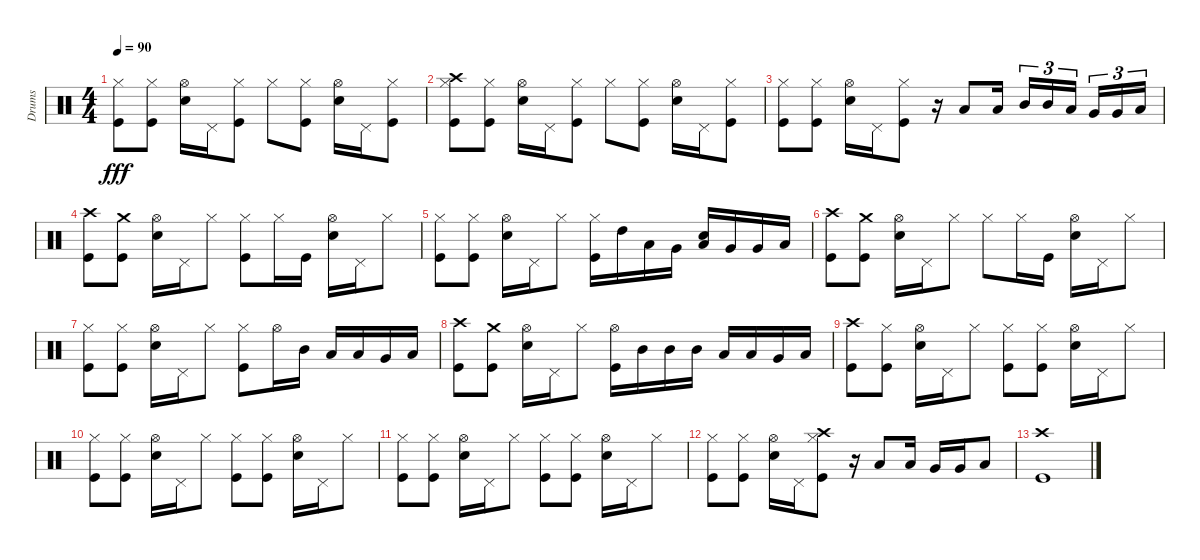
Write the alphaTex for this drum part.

\track ("Drums" "Drums") {instrument percussion}
\staff {score}
\articulation defaults
\ts (4 4)
\tempo 90
\clef neutral
\ks c
("Hi-Hat (closed)" "Kick (hit)").8{dy fff} ("Hi-Hat (closed)" "Kick (hit)").8 ("Hi-Hat (open)" "Snare (hit) 2").16 "Pedal Hi-Hat (hit)".16 ("Hi-Hat (closed)" "Kick (hit)").8 "Hi-Hat (closed)".8 ("Hi-Hat (closed)" "Kick (hit)").8 ("Hi-Hat (open)" "Snare (hit) 2").16 "Pedal Hi-Hat (hit)".16 ("Hi-Hat (closed)" "Kick (hit)").8 |
("Hi-Hat (closed)" "Crash high (hit)" "Kick (hit)").8 ("Hi-Hat (closed)" "Kick (hit)").8 ("Hi-Hat (open)" "Snare (hit) 2").16 "Pedal Hi-Hat (hit)".16 ("Hi-Hat (closed)" "Kick (hit)").8 "Hi-Hat (closed)".8 ("Hi-Hat (closed)" "Kick (hit)").8 ("Hi-Hat (open)" "Snare (hit) 2").16 "Pedal Hi-Hat (hit)".16 ("Hi-Hat (closed)" "Kick (hit)").8 |
("Hi-Hat (closed)" "Kick (hit)").8 ("Hi-Hat (closed)" "Kick (hit)").8 ("Hi-Hat (open)" "Snare (hit) 2").16 "Pedal Hi-Hat (hit)".16 ("Hi-Hat (closed)" "Kick (hit)").8 r.16 "Low Tom (hit)".8 "Low Tom (hit)".16 "Mid Tom (hit)".16{tu (3 2)} "Mid Tom (hit)".16{tu (3 2)} "Low Tom (hit)".16{tu (3 2)} "Very Low Tom (hit)".16{tu (3 2)} "Very Low Tom (hit)".16{tu (3 2)} "Low Floor Tom (hit)".16{tu (3 2)} |
("Crash high (hit)" "Kick (hit)").8 ("Crash medium (hit)" "Kick (hit)").8 ("Hi-Hat (open)" "Snare (hit) 2").16 "Pedal Hi-Hat (hit)".16 "Hi-Hat (closed)".8 ("Hi-Hat (closed)" "Kick (hit)").8 "Hi-Hat (closed)".16 "Kick (hit)".16 ("Hi-Hat (open)" "Snare (hit) 2").16 "Pedal Hi-Hat (hit)".16 "Hi-Hat (closed)".8 |
("Hi-Hat (closed)" "Kick (hit)").8 ("Hi-Hat (closed)" "Kick (hit)").8 ("Hi-Hat (open)" "Snare (hit) 2").16 "Pedal Hi-Hat (hit)".16 "Hi-Hat (closed)".8 ("Hi-Hat (closed)" "Kick (hit)").16 "High Tom (hit)".16 "Low Tom (hit)".16 "Very Low Tom (hit)".16 ("Low Tom (hit)" "Snare (hit) 2").16 "Very Low Tom (hit)".16 "Very Low Tom (hit)".16 "Low Floor Tom (hit)".16 |
("Crash high (hit)" "Kick (hit)").8 ("Crash medium (hit)" "Kick (hit)").8 ("Hi-Hat (open)" "Snare (hit) 2").16 "Pedal Hi-Hat (hit)".16 "Hi-Hat (closed)".8 "Hi-Hat (closed)".8 "Hi-Hat (closed)".16 "Kick (hit)".16 ("Hi-Hat (open)" "Snare (hit) 2").16 "Pedal Hi-Hat (hit)".16 "Hi-Hat (closed)".8 |
("Hi-Hat (closed)" "Kick (hit)").8 ("Hi-Hat (closed)" "Kick (hit)").8 ("Hi-Hat (open)" "Snare (hit) 2").16 "Pedal Hi-Hat (hit)".16 "Hi-Hat (closed)".8 ("Hi-Hat (closed)" "Kick (hit)").8 "Hi-Hat (open)".16 "Mid Tom (hit)".16 "Low Tom (hit)".16 "Low Tom (hit)".16 "Very Low Tom (hit)".16 "Low Floor Tom (hit)".16 |
("Crash high (hit)" "Kick (hit)").8 ("Crash medium (hit)" "Kick (hit)").8 ("Hi-Hat (open)" "Snare (hit) 2").16 "Pedal Hi-Hat (hit)".16 "Hi-Hat (closed)".8 ("Hi-Hat (open)" "Kick (hit)").16 "Mid Tom (hit)".16 "Mid Tom (hit)".16 "Mid Tom (hit)".16 "Low Tom (hit)".16 "Low Tom (hit)".16 "Very Low Tom (hit)".16 "Low Floor Tom (hit)".16 |
("Crash high (hit)" "Kick (hit)").8 ("Hi-Hat (closed)" "Kick (hit)").8 ("Hi-Hat (open)" "Snare (hit) 2").16 "Pedal Hi-Hat (hit)".16 "Hi-Hat (closed)".8 ("Hi-Hat (closed)" "Kick (hit)").8 ("Hi-Hat (closed)" "Kick (hit)").8 ("Hi-Hat (open)" "Snare (hit) 2").16 "Pedal Hi-Hat (hit)".16 "Hi-Hat (closed)".8 |
("Hi-Hat (closed)" "Kick (hit)").8 ("Hi-Hat (closed)" "Kick (hit)").8 ("Hi-Hat (open)" "Snare (hit) 2").16 "Pedal Hi-Hat (hit)".16 "Hi-Hat (closed)".8 ("Hi-Hat (closed)" "Kick (hit)").8 ("Hi-Hat (closed)" "Kick (hit)").8 ("Hi-Hat (open)" "Snare (hit) 2").16 "Pedal Hi-Hat (hit)".16 "Hi-Hat (closed)".8 |
("Hi-Hat (closed)" "Kick (hit)").8 ("Hi-Hat (closed)" "Kick (hit)").8 ("Hi-Hat (open)" "Snare (hit) 2").16 "Pedal Hi-Hat (hit)".16 "Hi-Hat (closed)".8 ("Hi-Hat (closed)" "Kick (hit)").8 ("Hi-Hat (closed)" "Kick (hit)").8 ("Hi-Hat (open)" "Snare (hit) 2").16 "Pedal Hi-Hat (hit)".16 "Hi-Hat (closed)".8 |
("Hi-Hat (closed)" "Kick (hit)").8 ("Hi-Hat (closed)" "Kick (hit)").8 ("Hi-Hat (open)" "Snare (hit) 2").16 "Pedal Hi-Hat (hit)".16 ("Hi-Hat (closed)" "Crash high (hit)" "Kick (hit)").8 r.16 "Low Tom (hit)".8 "Low Tom (hit)".16 "Very Low Tom (hit)".16 "Very Low Tom (hit)".16 "Low Floor Tom (hit)".8 |
("Crash high (hit)" "Kick (hit)").1
